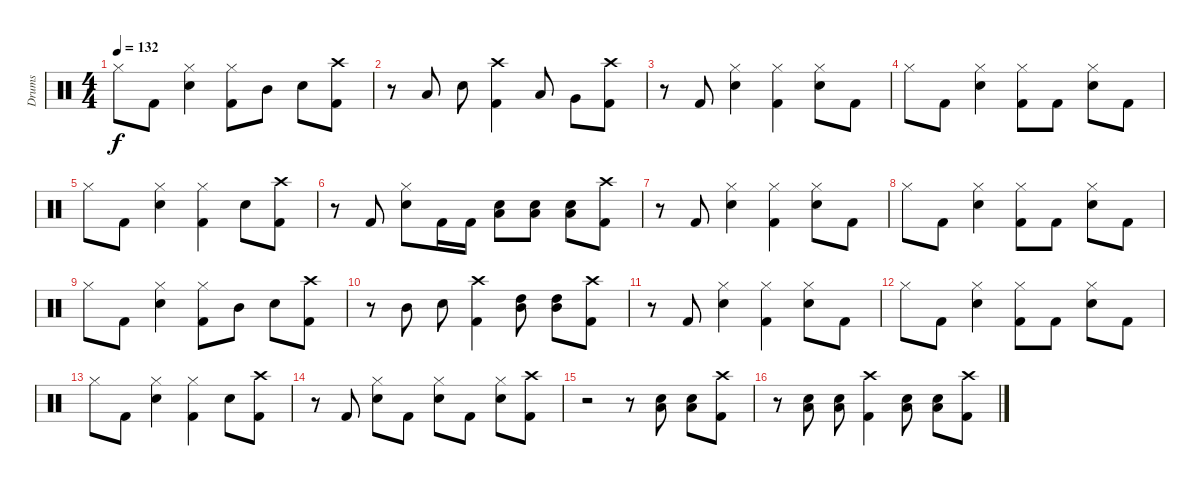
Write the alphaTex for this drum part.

\track ("Drums" "Drums") {instrument percussion}
\staff {score}
\articulation defaults
\ts (4 4)
\tempo 132
\clef neutral
\ks c "Hi-Hat (closed)".8{dy f} "Kick (hit) 2".8
("Hi-Hat (closed)" "Electric Snare (hit)").4 ("Hi-Hat (closed)" "Kick (hit) 2").8 "Mid Tom (hit)".8 "Electric Snare (hit)".8 ("Crash high (hit)" "Kick (hit) 2").8 |
r.8 "Low Tom (hit)".8 "Electric Snare (hit)".8 ("Crash high (hit)" "Kick (hit) 2").4 "Low Tom (hit)".8 "Very Low Tom (hit)".8 ("Crash high (hit)" "Kick (hit) 2").8 |
r.8 "Kick (hit) 2".8 ("Hi-Hat (closed)" "Electric Snare (hit)").4 ("Hi-Hat (closed)" "Kick (hit) 2").4 ("Hi-Hat (closed)" "Electric Snare (hit)").8 "Kick (hit) 2".8 |
"Hi-Hat (closed)".8 "Kick (hit) 2".8 ("Hi-Hat (closed)" "Electric Snare (hit)").4 ("Hi-Hat (closed)" "Kick (hit) 2").8 "Kick (hit) 2".8 ("Hi-Hat (closed)" "Electric Snare (hit)").8 "Kick (hit) 2".8 |
"Hi-Hat (closed)".8 "Kick (hit) 2".8 ("Hi-Hat (closed)" "Electric Snare (hit)").4 ("Hi-Hat (closed)" "Kick (hit) 2").4 "Electric Snare (hit)".8 ("Crash high (hit)" "Kick (hit) 2").8 |
r.8 "Kick (hit) 2".8 ("Hi-Hat (closed)" "Electric Snare (hit)").8 "Kick (hit) 2".16 "Kick (hit) 2".16 ("Electric Snare (hit)" "Low Tom (hit)").8 ("Electric Snare (hit)" "Low Tom (hit)").8 ("Electric Snare (hit)" "Low Tom (hit)").8 ("Crash high (hit)" "Kick (hit) 2").8 |
r.8 "Kick (hit) 2".8 ("Hi-Hat (closed)" "Electric Snare (hit)").4 ("Hi-Hat (closed)" "Kick (hit) 2").4 ("Hi-Hat (closed)" "Electric Snare (hit)").8 "Kick (hit) 2".8 |
"Hi-Hat (closed)".8 "Kick (hit) 2".8 ("Hi-Hat (closed)" "Electric Snare (hit)").4 ("Hi-Hat (closed)" "Kick (hit) 2").8 "Kick (hit) 2".8 ("Hi-Hat (closed)" "Electric Snare (hit)").8 "Kick (hit) 2".8 |
"Hi-Hat (closed)".8 "Kick (hit) 2".8 ("Hi-Hat (closed)" "Electric Snare (hit)").4 ("Hi-Hat (closed)" "Kick (hit) 2").8 "Mid Tom (hit)".8 "Electric Snare (hit)".8 ("Crash high (hit)" "Kick (hit) 2").8 |
r.8 "Mid Tom (hit)".8 "Electric Snare (hit)".8 ("Crash high (hit)" "Kick (hit) 2").4 ("Mid Tom (hit)" "High Tom (hit)").8 ("Mid Tom (hit)" "High Tom (hit)").8 ("Crash high (hit)" "Kick (hit) 2").8 |
r.8 "Kick (hit) 2".8 ("Hi-Hat (closed)" "Electric Snare (hit)").4 ("Hi-Hat (closed)" "Kick (hit) 2").4 ("Hi-Hat (closed)" "Electric Snare (hit)").8 "Kick (hit) 2".8 |
"Hi-Hat (closed)".8 "Kick (hit) 2".8 ("Hi-Hat (closed)" "Electric Snare (hit)").4 ("Hi-Hat (closed)" "Kick (hit) 2").8 "Kick (hit) 2".8 ("Hi-Hat (closed)" "Electric Snare (hit)").8 "Kick (hit) 2".8 |
"Hi-Hat (closed)".8 "Kick (hit) 2".8 ("Hi-Hat (closed)" "Electric Snare (hit)").4 ("Hi-Hat (closed)" "Kick (hit) 2").4 "Electric Snare (hit)".8 ("Crash high (hit)" "Kick (hit) 2").8 |
r.8 "Kick (hit) 2".8 ("Hi-Hat (closed)" "Electric Snare (hit)").8 "Kick (hit) 2".8 ("Hi-Hat (closed)" "Electric Snare (hit)").8 "Kick (hit) 2".8 ("Hi-Hat (closed)" "Electric Snare (hit)").8 ("Crash high (hit)" "Kick (hit) 2").8 |
r.2 r.8 ("Electric Snare (hit)" "Low Tom (hit)").8 ("Electric Snare (hit)" "Low Tom (hit)").8 ("Crash high (hit)" "Kick (hit) 2").8 |
r.8 ("Electric Snare (hit)" "Low Tom (hit)").8 ("Electric Snare (hit)" "Low Tom (hit)").8 ("Crash high (hit)" "Kick (hit) 2").4 ("Electric Snare (hit)" "Low Tom (hit)").8 ("Electric Snare (hit)" "Low Tom (hit)").8 ("Crash high (hit)" "Kick (hit) 2").8
